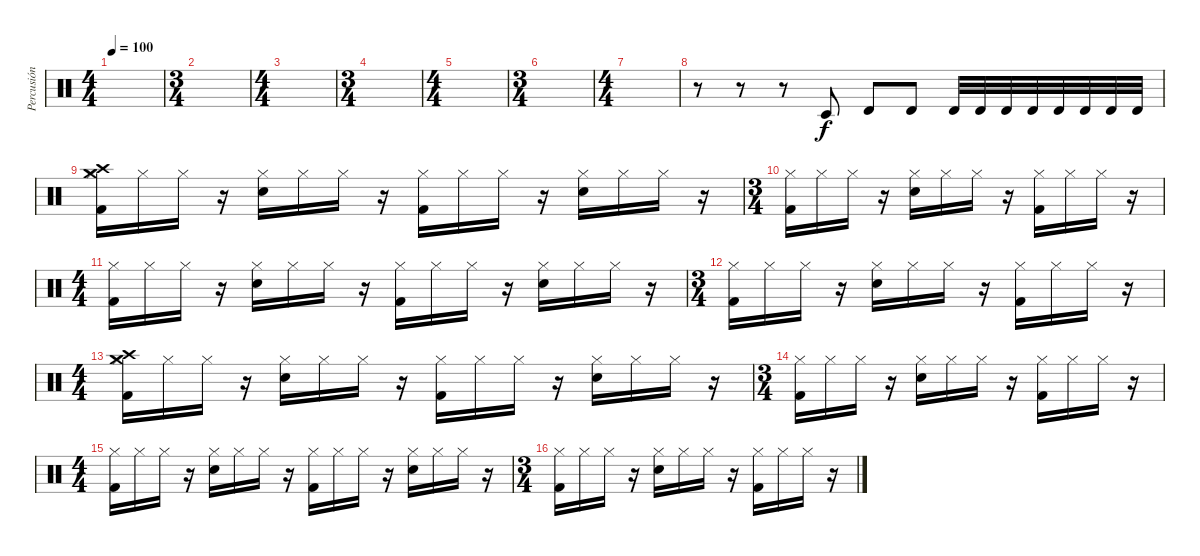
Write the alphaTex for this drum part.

\track ("Percusión" "Percusión") {instrument percussion}
\staff {score}
\articulation defaults
\ts (4 4)
\tempo 100
\clef neutral
\ks c
|
\ts (3 4)
|
\ts (4 4)
|
\ts (3 4)
|
\ts (4 4)
|
\ts (3 4)
|
\ts (4 4)
|
r.8 r.8 r.8 "Timbale low (hit)".8 "Timbale high (hit)".8 "Timbale high (hit)".8 "Timbale high (hit)".32 "Timbale high (hit)".32 "Timbale high (hit)".32 "Timbale high (hit)".32 "Timbale high (hit)".32 "Timbale high (hit)".32 "Timbale high (hit)".32 "Timbale high (hit)".32 |
("Hi-Hat (closed)" "Crash high (hit)" "Crash medium (hit)" "Kick (hit) 2").16 "Hi-Hat (closed)".16 "Hi-Hat (closed)".16 r.16 ("Hi-Hat (closed)" "Snare (hit) 2").16 "Hi-Hat (closed)".16 "Hi-Hat (closed)".16 r.16 ("Hi-Hat (closed)" "Kick (hit) 2").16 "Hi-Hat (closed)".16 "Hi-Hat (closed)".16 r.16 ("Hi-Hat (closed)" "Snare (hit) 2").16 "Hi-Hat (closed)".16 "Hi-Hat (closed)".16 r.16 |
\ts (3 4)
("Hi-Hat (closed)" "Kick (hit) 2").16 "Hi-Hat (closed)".16 "Hi-Hat (closed)".16 r.16 ("Hi-Hat (closed)" "Snare (hit) 2").16 "Hi-Hat (closed)".16 "Hi-Hat (closed)".16 r.16 ("Hi-Hat (closed)" "Kick (hit) 2").16 "Hi-Hat (closed)".16 "Hi-Hat (closed)".16 r.16 |
\ts (4 4)
("Hi-Hat (closed)" "Kick (hit) 2").16 "Hi-Hat (closed)".16 "Hi-Hat (closed)".16 r.16 ("Hi-Hat (closed)" "Snare (hit) 2").16 "Hi-Hat (closed)".16 "Hi-Hat (closed)".16 r.16 ("Hi-Hat (closed)" "Kick (hit) 2").16 "Hi-Hat (closed)".16 "Hi-Hat (closed)".16 r.16 ("Hi-Hat (closed)" "Snare (hit) 2").16 "Hi-Hat (closed)".16 "Hi-Hat (closed)".16 r.16 |
\ts (3 4)
("Hi-Hat (closed)" "Kick (hit) 2").16 "Hi-Hat (closed)".16 "Hi-Hat (closed)".16 r.16 ("Hi-Hat (closed)" "Snare (hit) 2").16 "Hi-Hat (closed)".16 "Hi-Hat (closed)".16 r.16 ("Hi-Hat (closed)" "Kick (hit) 2").16 "Hi-Hat (closed)".16 "Hi-Hat (closed)".16 r.16 |
\ts (4 4)
("Hi-Hat (closed)" "Crash high (hit)" "Crash medium (hit)" "Kick (hit) 2").16 "Hi-Hat (closed)".16 "Hi-Hat (closed)".16 r.16 ("Hi-Hat (closed)" "Snare (hit) 2").16 "Hi-Hat (closed)".16 "Hi-Hat (closed)".16 r.16 ("Hi-Hat (closed)" "Kick (hit) 2").16 "Hi-Hat (closed)".16 "Hi-Hat (closed)".16 r.16 ("Hi-Hat (closed)" "Snare (hit) 2").16 "Hi-Hat (closed)".16 "Hi-Hat (closed)".16 r.16 |
\ts (3 4)
("Hi-Hat (closed)" "Kick (hit) 2").16 "Hi-Hat (closed)".16 "Hi-Hat (closed)".16 r.16 ("Hi-Hat (closed)" "Snare (hit) 2").16 "Hi-Hat (closed)".16 "Hi-Hat (closed)".16 r.16 ("Hi-Hat (closed)" "Kick (hit) 2").16 "Hi-Hat (closed)".16 "Hi-Hat (closed)".16 r.16 |
\ts (4 4)
("Hi-Hat (closed)" "Kick (hit) 2").16 "Hi-Hat (closed)".16 "Hi-Hat (closed)".16 r.16 ("Hi-Hat (closed)" "Snare (hit) 2").16 "Hi-Hat (closed)".16 "Hi-Hat (closed)".16 r.16 ("Hi-Hat (closed)" "Kick (hit) 2").16 "Hi-Hat (closed)".16 "Hi-Hat (closed)".16 r.16 ("Hi-Hat (closed)" "Snare (hit) 2").16 "Hi-Hat (closed)".16 "Hi-Hat (closed)".16 r.16 |
\ts (3 4)
("Hi-Hat (closed)" "Kick (hit) 2").16 "Hi-Hat (closed)".16 "Hi-Hat (closed)".16 r.16 ("Hi-Hat (closed)" "Snare (hit) 2").16 "Hi-Hat (closed)".16 "Hi-Hat (closed)".16 r.16 ("Hi-Hat (closed)" "Kick (hit) 2").16 "Hi-Hat (closed)".16 "Hi-Hat (closed)".16 r.16
